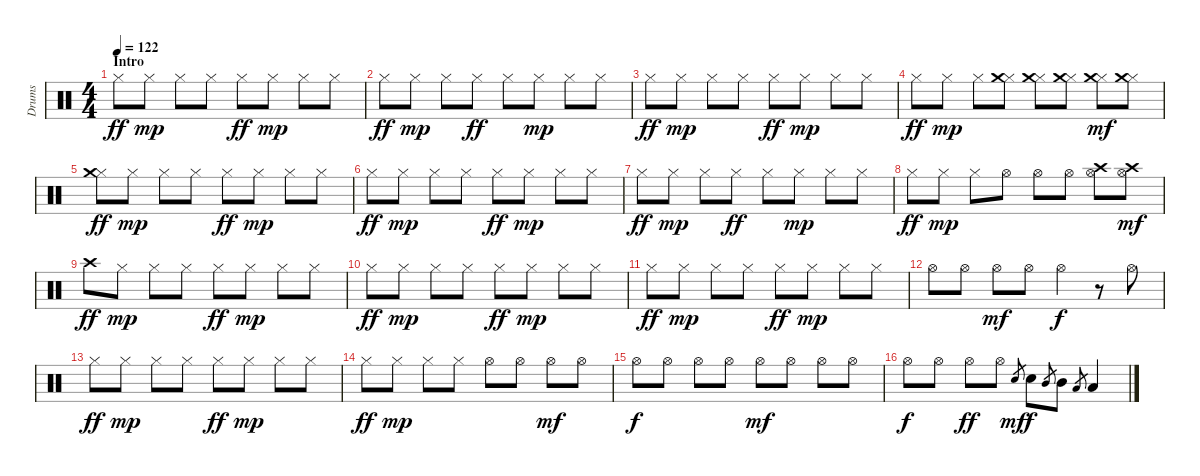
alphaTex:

\track ("Drums" "Drums") {instrument percussion}
\staff {score}
\articulation defaults
\ts (4 4)
\section ("" "Intro")
\tempo 122
\clef neutral
\ks c "Hi-Hat (closed)".8{dy ff} "Hi-Hat (closed)".8{dy mp} "Hi-Hat (closed)".8 "Hi-Hat (closed)".8 "Hi-Hat (closed)".8{dy ff} "Hi-Hat (closed)".8{dy mp} "Hi-Hat (closed)".8 "Hi-Hat (closed)".8
|
"Hi-Hat (closed)".8{dy ff} "Hi-Hat (closed)".8{dy mp} "Hi-Hat (closed)".8 "Hi-Hat (closed)".8{dy ff} "Hi-Hat (closed)".8 "Hi-Hat (closed)".8{dy mp} "Hi-Hat (closed)".8 "Hi-Hat (closed)".8 |
"Hi-Hat (closed)".8{dy ff} "Hi-Hat (closed)".8{dy mp} "Hi-Hat (closed)".8 "Hi-Hat (closed)".8 "Hi-Hat (closed)".8{dy ff} "Hi-Hat (closed)".8{dy mp} "Hi-Hat (closed)".8 "Hi-Hat (closed)".8 |
"Hi-Hat (closed)".8{dy ff} "Hi-Hat (closed)".8{dy mp} "Hi-Hat (closed)".8 ("Hi-Hat (closed)" "Crash medium (hit)").8 ("Hi-Hat (closed)" "Crash medium (hit)").8 ("Hi-Hat (closed)" "Crash medium (hit)").8 ("Hi-Hat (closed)" "Crash medium (hit)").8{dy mf} ("Hi-Hat (closed)" "Crash medium (hit)").8 |
("Hi-Hat (closed)" "Crash medium (hit)").8{dy ff} "Hi-Hat (closed)".8{dy mp} "Hi-Hat (closed)".8 "Hi-Hat (closed)".8 "Hi-Hat (closed)".8{dy ff} "Hi-Hat (closed)".8{dy mp} "Hi-Hat (closed)".8 "Hi-Hat (closed)".8 |
"Hi-Hat (closed)".8{dy ff} "Hi-Hat (closed)".8{dy mp} "Hi-Hat (closed)".8 "Hi-Hat (closed)".8 "Hi-Hat (closed)".8{dy ff} "Hi-Hat (closed)".8{dy mp} "Hi-Hat (closed)".8 "Hi-Hat (closed)".8 |
"Hi-Hat (closed)".8{dy ff} "Hi-Hat (closed)".8{dy mp} "Hi-Hat (closed)".8 "Hi-Hat (closed)".8{dy ff} "Hi-Hat (closed)".8 "Hi-Hat (closed)".8{dy mp} "Hi-Hat (closed)".8 "Hi-Hat (closed)".8 |
"Hi-Hat (closed)".8{dy ff} "Hi-Hat (closed)".8{dy mp} "Hi-Hat (closed)".8 "Hi-Hat (open)".8 "Hi-Hat (open)".8 "Hi-Hat (open)".8 ("Hi-Hat (open)" "Crash high (hit)").8 ("Hi-Hat (open)" "Crash high (hit)").8{dy mf} |
"Crash high (hit)".8{dy ff} "Hi-Hat (closed)".8{dy mp} "Hi-Hat (closed)".8 "Hi-Hat (closed)".8 "Hi-Hat (closed)".8{dy ff} "Hi-Hat (closed)".8{dy mp} "Hi-Hat (closed)".8 "Hi-Hat (closed)".8 |
"Hi-Hat (closed)".8{dy ff} "Hi-Hat (closed)".8{dy mp} "Hi-Hat (closed)".8 "Hi-Hat (closed)".8 "Hi-Hat (closed)".8{dy ff} "Hi-Hat (closed)".8{dy mp} "Hi-Hat (closed)".8 "Hi-Hat (closed)".8 |
"Hi-Hat (closed)".8{dy ff} "Hi-Hat (closed)".8{dy mp} "Hi-Hat (closed)".8 "Hi-Hat (closed)".8 "Hi-Hat (closed)".8{dy ff} "Hi-Hat (closed)".8{dy mp} "Hi-Hat (closed)".8 "Hi-Hat (closed)".8 |
"Hi-Hat (open)".8 "Hi-Hat (open)".8 "Hi-Hat (open)".8{dy mf} "Hi-Hat (open)".8 "Hi-Hat (open)".4{dy f} r.8 "Hi-Hat (open)".8 |
"Hi-Hat (closed)".8{dy ff} "Hi-Hat (closed)".8{dy mp} "Hi-Hat (closed)".8 "Hi-Hat (closed)".8 "Hi-Hat (closed)".8{dy ff} "Hi-Hat (closed)".8{dy mp} "Hi-Hat (closed)".8 "Hi-Hat (closed)".8 |
"Hi-Hat (closed)".8{dy ff} "Hi-Hat (closed)".8{dy mp} "Hi-Hat (closed)".8 "Hi-Hat (closed)".8 "Hi-Hat (open)".8 "Hi-Hat (open)".8 "Hi-Hat (open)".8{dy mf} "Hi-Hat (open)".8 |
"Hi-Hat (open)".8{dy f} "Hi-Hat (open)".8 "Hi-Hat (open)".8 "Hi-Hat (open)".8 "Hi-Hat (open)".8{dy mf} "Hi-Hat (open)".8 "Hi-Hat (open)".8 "Hi-Hat (open)".8 |
"Hi-Hat (open)".8{dy f} "Hi-Hat (open)".8 "Hi-Hat (open)".8{dy ff} "Hi-Hat (open)".8 "Snare (hit) 2".8{gr dy mf} "Snare (hit) 2".8{dy f} "Mid Tom (hit)".8{gr} "Mid Tom (hit)".8 "Low Tom (hit)".8{gr} "Low Tom (hit)".4
